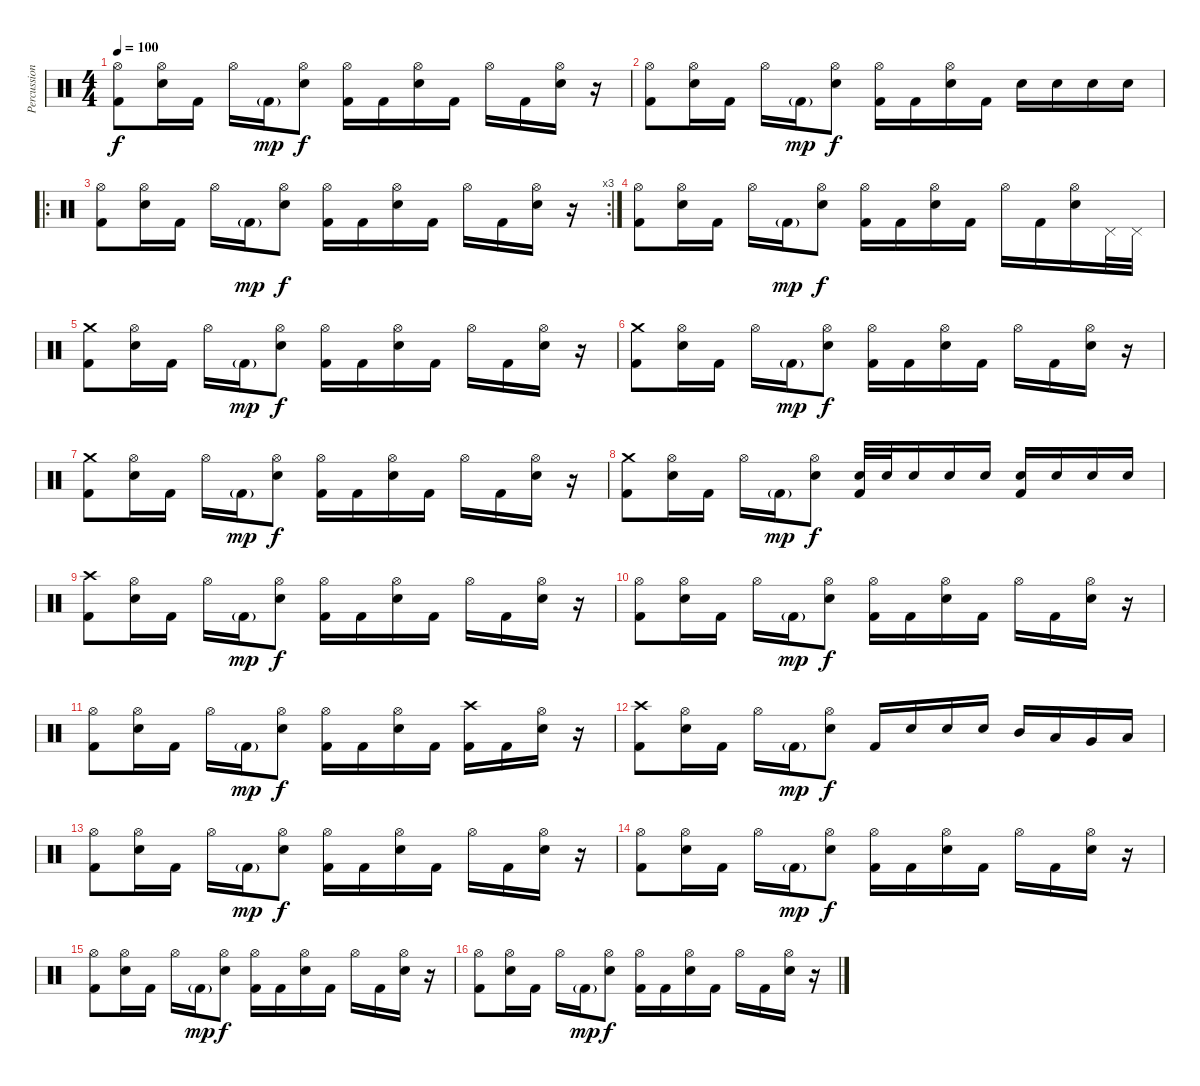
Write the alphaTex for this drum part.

\track ("Percussions" "Percussion") {instrument percussion}
\staff {score}
\articulation defaults
\ts (4 4)
\tempo 100
\clef neutral
\ks c
("Hi-Hat (open)" "Kick (hit) 2").8{dy f} ("Hi-Hat (open)" "Electric Snare (hit)").16 "Kick (hit) 2".16 "Hi-Hat (open)".16 "Kick (hit) 2"{g}.16{dy mp} ("Hi-Hat (open)" "Electric Snare (hit)").8{dy f} ("Hi-Hat (open)" "Kick (hit) 2").16 "Kick (hit) 2".16 ("Hi-Hat (open)" "Electric Snare (hit)").16 "Kick (hit) 2".16 "Hi-Hat (open)".16 "Kick (hit) 2".16 ("Hi-Hat (open)" "Electric Snare (hit)").16 r.16 |
("Hi-Hat (open)" "Kick (hit) 2").8 ("Hi-Hat (open)" "Electric Snare (hit)").16 "Kick (hit) 2".16 "Hi-Hat (open)".16 "Kick (hit) 2"{g}.16{dy mp} ("Hi-Hat (open)" "Electric Snare (hit)").8{dy f} ("Hi-Hat (open)" "Kick (hit) 2").16 "Kick (hit) 2".16 ("Hi-Hat (open)" "Electric Snare (hit)").16 "Kick (hit) 2".16 "Snare (hit) 2".16 "Snare (hit) 2".16 "Snare (hit) 2".16 "Snare (hit) 2".16 |
\ro
\rc 3
("Hi-Hat (open)" "Kick (hit) 2").8{volume 11} ("Hi-Hat (open)" "Electric Snare (hit)").16 "Kick (hit) 2".16 "Hi-Hat (open)".16 "Kick (hit) 2"{g}.16{dy mp} ("Hi-Hat (open)" "Electric Snare (hit)").8{dy f} ("Hi-Hat (open)" "Kick (hit) 2").16 "Kick (hit) 2".16 ("Hi-Hat (open)" "Electric Snare (hit)").16 "Kick (hit) 2".16 "Hi-Hat (open)".16 "Kick (hit) 2".16 ("Hi-Hat (open)" "Electric Snare (hit)").16 r.16 |
("Hi-Hat (open)" "Kick (hit) 2").8 ("Hi-Hat (open)" "Electric Snare (hit)").16 "Kick (hit) 2".16 "Hi-Hat (open)".16 "Kick (hit) 2"{g}.16{dy mp} ("Hi-Hat (open)" "Electric Snare (hit)").8{dy f} ("Hi-Hat (open)" "Kick (hit) 2").16 "Kick (hit) 2".16 ("Hi-Hat (open)" "Electric Snare (hit)").16 "Kick (hit) 2".16 "Hi-Hat (open)".16 "Kick (hit) 2".16 ("Hi-Hat (open)" "Electric Snare (hit)").16 "Pedal Hi-Hat (hit)".32 "Pedal Hi-Hat (hit)".32 |
("Crash medium (hit)" "Kick (hit) 2").8 ("Hi-Hat (open)" "Electric Snare (hit)").16 "Kick (hit) 2".16 "Hi-Hat (open)".16 "Kick (hit) 2"{g}.16{dy mp} ("Hi-Hat (open)" "Electric Snare (hit)").8{dy f} ("Hi-Hat (open)" "Kick (hit) 2").16 "Kick (hit) 2".16 ("Hi-Hat (open)" "Electric Snare (hit)").16 "Kick (hit) 2".16 "Hi-Hat (open)".16 "Kick (hit) 2".16 ("Hi-Hat (open)" "Electric Snare (hit)").16 r.16 |
("Crash medium (hit)" "Kick (hit) 2").8 ("Hi-Hat (open)" "Electric Snare (hit)").16 "Kick (hit) 2".16 "Hi-Hat (open)".16 "Kick (hit) 2"{g}.16{dy mp} ("Hi-Hat (open)" "Electric Snare (hit)").8{dy f} ("Hi-Hat (open)" "Kick (hit) 2").16 "Kick (hit) 2".16 ("Hi-Hat (open)" "Electric Snare (hit)").16 "Kick (hit) 2".16 "Hi-Hat (open)".16 "Kick (hit) 2".16 ("Hi-Hat (open)" "Electric Snare (hit)").16 r.16 |
("Crash medium (hit)" "Kick (hit) 2").8 ("Hi-Hat (open)" "Electric Snare (hit)").16 "Kick (hit) 2".16 "Hi-Hat (open)".16 "Kick (hit) 2"{g}.16{dy mp} ("Hi-Hat (open)" "Electric Snare (hit)").8{dy f} ("Hi-Hat (open)" "Kick (hit) 2").16 "Kick (hit) 2".16 ("Hi-Hat (open)" "Electric Snare (hit)").16 "Kick (hit) 2".16 "Hi-Hat (open)".16 "Kick (hit) 2".16 ("Hi-Hat (open)" "Electric Snare (hit)").16 r.16 |
("Crash medium (hit)" "Kick (hit) 2").8{volume 16} ("Hi-Hat (open)" "Electric Snare (hit)").16 "Kick (hit) 2".16 "Hi-Hat (open)".16 "Kick (hit) 2"{g}.16{dy mp} ("Hi-Hat (open)" "Electric Snare (hit)").8{dy f} ("Electric Snare (hit)" "Kick (hit) 2").32 "Electric Snare (hit)".32 "Electric Snare (hit)".16 "Electric Snare (hit)".16 "Electric Snare (hit)".16 ("Electric Snare (hit)" "Kick (hit) 2").16 "Electric Snare (hit)".16 "Electric Snare (hit)".16 "Electric Snare (hit)".16 |
("Crash high (hit)" "Kick (hit) 2").8 ("Hi-Hat (open)" "Electric Snare (hit)").16 "Kick (hit) 2".16 "Hi-Hat (open)".16 "Kick (hit) 2"{g}.16{dy mp} ("Hi-Hat (open)" "Electric Snare (hit)").8{dy f} ("Hi-Hat (open)" "Kick (hit) 2").16 "Kick (hit) 2".16 ("Hi-Hat (open)" "Electric Snare (hit)").16 "Kick (hit) 2".16 "Hi-Hat (open)".16 "Kick (hit) 2".16 ("Hi-Hat (open)" "Electric Snare (hit)").16 r.16 |
("Hi-Hat (open)" "Kick (hit) 2").8 ("Hi-Hat (open)" "Electric Snare (hit)").16 "Kick (hit) 2".16 "Hi-Hat (open)".16 "Kick (hit) 2"{g}.16{dy mp} ("Hi-Hat (open)" "Electric Snare (hit)").8{dy f} ("Hi-Hat (open)" "Kick (hit) 2").16 "Kick (hit) 2".16 ("Hi-Hat (open)" "Electric Snare (hit)").16 "Kick (hit) 2".16 "Hi-Hat (open)".16 "Kick (hit) 2".16 ("Hi-Hat (open)" "Electric Snare (hit)").16 r.16 |
("Hi-Hat (open)" "Kick (hit) 2").8 ("Hi-Hat (open)" "Electric Snare (hit)").16 "Kick (hit) 2".16 "Hi-Hat (open)".16 "Kick (hit) 2"{g}.16{dy mp} ("Hi-Hat (open)" "Electric Snare (hit)").8{dy f} ("Hi-Hat (open)" "Kick (hit) 2").16 "Kick (hit) 2".16 ("Hi-Hat (open)" "Electric Snare (hit)").16 "Kick (hit) 2".16 ("Crash high (hit)" "Kick (hit) 2").16 "Kick (hit) 2".16 ("Hi-Hat (open)" "Electric Snare (hit)").16 r.16 |
("Crash high (hit)" "Kick (hit) 2").8 ("Hi-Hat (open)" "Electric Snare (hit)").16 "Kick (hit) 2".16 "Hi-Hat (open)".16 "Kick (hit) 2"{g}.16{dy mp} ("Hi-Hat (open)" "Electric Snare (hit)").8{dy f} "Kick (hit) 2".16 "Electric Snare (hit)".16 "Electric Snare (hit)".16 "Electric Snare (hit)".16 "Mid Tom (hit)".16 "Low Tom (hit)".16 "Very Low Tom (hit)".16 "Low Floor Tom (hit)".16 |
("Hi-Hat (open)" "Kick (hit) 2").8 ("Hi-Hat (open)" "Electric Snare (hit)").16 "Kick (hit) 2".16 "Hi-Hat (open)".16 "Kick (hit) 2"{g}.16{dy mp} ("Hi-Hat (open)" "Electric Snare (hit)").8{dy f} ("Hi-Hat (open)" "Kick (hit) 2").16 "Kick (hit) 2".16 ("Hi-Hat (open)" "Electric Snare (hit)").16 "Kick (hit) 2".16 "Hi-Hat (open)".16 "Kick (hit) 2".16 ("Hi-Hat (open)" "Electric Snare (hit)").16 r.16 |
("Hi-Hat (open)" "Kick (hit) 2").8 ("Hi-Hat (open)" "Electric Snare (hit)").16 "Kick (hit) 2".16 "Hi-Hat (open)".16 "Kick (hit) 2"{g}.16{dy mp} ("Hi-Hat (open)" "Electric Snare (hit)").8{dy f} ("Hi-Hat (open)" "Kick (hit) 2").16 "Kick (hit) 2".16 ("Hi-Hat (open)" "Electric Snare (hit)").16 "Kick (hit) 2".16 "Hi-Hat (open)".16 "Kick (hit) 2".16 ("Hi-Hat (open)" "Electric Snare (hit)").16 r.16 |
("Hi-Hat (open)" "Kick (hit) 2").8 ("Hi-Hat (open)" "Electric Snare (hit)").16 "Kick (hit) 2".16 "Hi-Hat (open)".16 "Kick (hit) 2"{g}.16{dy mp} ("Hi-Hat (open)" "Electric Snare (hit)").8{dy f} ("Hi-Hat (open)" "Kick (hit) 2").16 "Kick (hit) 2".16 ("Hi-Hat (open)" "Electric Snare (hit)").16 "Kick (hit) 2".16 "Hi-Hat (open)".16 "Kick (hit) 2".16 ("Hi-Hat (open)" "Electric Snare (hit)").16 r.16 |
("Hi-Hat (open)" "Kick (hit) 2").8 ("Hi-Hat (open)" "Electric Snare (hit)").16 "Kick (hit) 2".16 "Hi-Hat (open)".16 "Kick (hit) 2"{g}.16{dy mp} ("Hi-Hat (open)" "Electric Snare (hit)").8{dy f} ("Hi-Hat (open)" "Kick (hit) 2").16 "Kick (hit) 2".16 ("Hi-Hat (open)" "Electric Snare (hit)").16 "Kick (hit) 2".16 "Hi-Hat (open)".16 "Kick (hit) 2".16 ("Hi-Hat (open)" "Electric Snare (hit)").16 r.16
